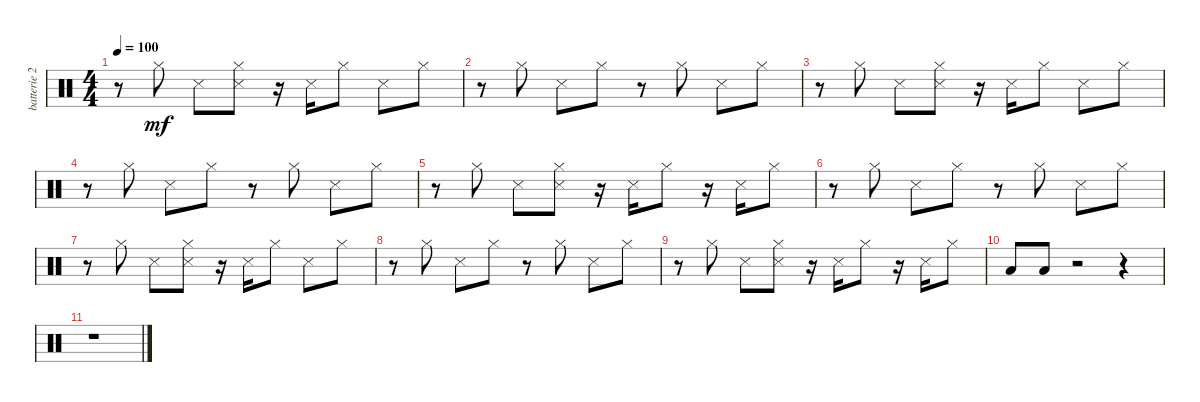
\track ("batterie 2" "batterie 2") {instrument percussion}
\staff {score}
\articulation defaults
\ts (4 4)
\tempo 100
\clef neutral
\ks c
r.8{dy mf} "Hi-Hat (closed)".8 "Snare (side stick) 3".8 ("Snare (side stick) 3" "Hi-Hat (closed)").8 r.16 "Snare (side stick) 3".16 "Hi-Hat (closed)".8 "Snare (side stick) 3".8 "Hi-Hat (closed)".8 |
r.8 "Hi-Hat (closed)".8 "Snare (side stick) 3".8 "Hi-Hat (closed)".8 r.8 "Hi-Hat (closed)".8 "Snare (side stick) 3".8 "Hi-Hat (closed)".8 |
r.8 "Hi-Hat (closed)".8 "Snare (side stick) 3".8 ("Snare (side stick) 3" "Hi-Hat (closed)").8 r.16 "Snare (side stick) 3".16 "Hi-Hat (closed)".8 "Snare (side stick) 3".8 "Hi-Hat (closed)".8 |
r.8 "Hi-Hat (closed)".8 "Snare (side stick) 3".8 "Hi-Hat (closed)".8 r.8 "Hi-Hat (closed)".8 "Snare (side stick) 3".8 "Hi-Hat (closed)".8 |
r.8 "Hi-Hat (closed)".8 "Snare (side stick) 3".8 ("Snare (side stick) 3" "Hi-Hat (closed)").8 r.16 "Snare (side stick) 3".16 "Hi-Hat (closed)".8 r.16 "Snare (side stick) 3".16 "Hi-Hat (closed)".8 |
r.8 "Hi-Hat (closed)".8 "Snare (side stick) 3".8 "Hi-Hat (closed)".8 r.8 "Hi-Hat (closed)".8 "Snare (side stick) 3".8 "Hi-Hat (closed)".8 |
r.8 "Hi-Hat (closed)".8 "Snare (side stick) 3".8 ("Snare (side stick) 3" "Hi-Hat (closed)").8 r.16 "Snare (side stick) 3".16 "Hi-Hat (closed)".8 "Snare (side stick) 3".8 "Hi-Hat (closed)".8 |
r.8 "Hi-Hat (closed)".8 "Snare (side stick) 3".8 "Hi-Hat (closed)".8 r.8 "Hi-Hat (closed)".8 "Snare (side stick) 3".8 "Hi-Hat (closed)".8 |
r.8 "Hi-Hat (closed)".8 "Snare (side stick) 3".8 ("Snare (side stick) 3" "Hi-Hat (closed)").8 r.16 "Snare (side stick) 3".16 "Hi-Hat (closed)".8 r.16 "Snare (side stick) 3".16 "Hi-Hat (closed)".8 |
"Low Floor Tom (hit)".8 "Low Floor Tom (hit)".8 r.2 r.4 |
r.1
